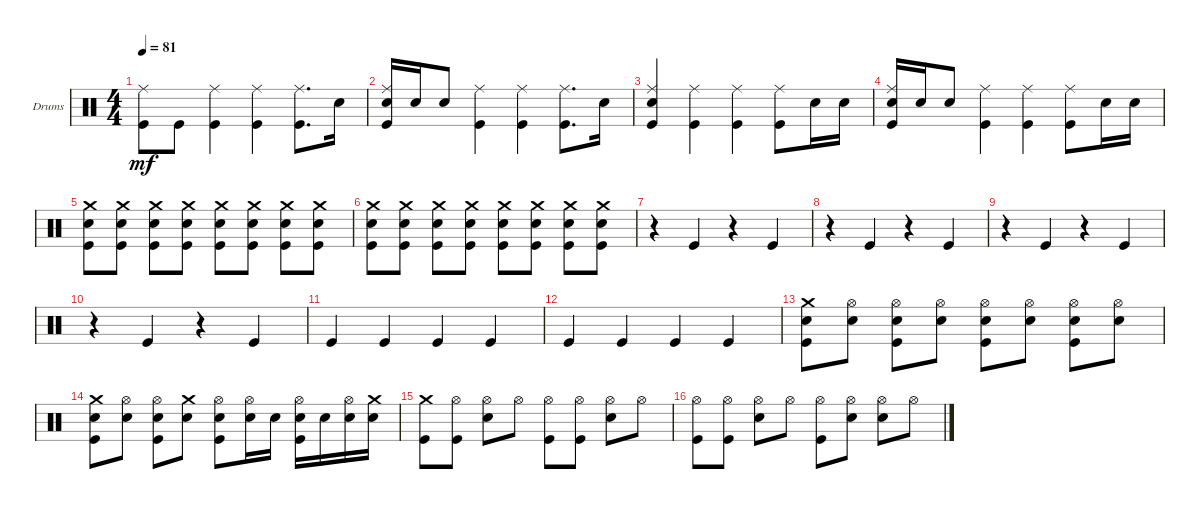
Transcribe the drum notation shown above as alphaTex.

\bracketExtendMode groupsimilarinstruments
\firstSystemTrackNameOrientation horizontal
\otherSystemsTrackNameOrientation horizontal
\track ("Drumkit" "Drums") {instrument percussion}
\staff {score}
\articulation defaults
\ts (4 4)
\tempo 81
\clef neutral
\ks c
("Kick (hit)" "Ride (middle)").8{dy mf} "Kick (hit)".8 ("Kick (hit)" "Ride (middle)").4 ("Kick (hit)" "Ride (middle)").4 ("Kick (hit)" "Ride (middle)").8{d} "Snare (hit) 2".16 |
("Kick (hit)" "Snare (hit) 2" "Ride (middle)").16 "Snare (hit) 2".16 "Snare (hit) 2".8 ("Kick (hit)" "Ride (middle)").4 ("Kick (hit)" "Ride (middle)").4 ("Kick (hit)" "Ride (middle)").8{d} "Snare (hit) 2".16 |
("Kick (hit)" "Snare (hit) 2" "Ride (middle)").4 ("Kick (hit)" "Ride (middle)").4 ("Kick (hit)" "Ride (middle)").4 ("Kick (hit)" "Ride (middle)").8 "Snare (hit) 2".16 "Snare (hit) 2".16 |
("Kick (hit)" "Snare (hit) 2" "Ride (middle)").16 "Snare (hit) 2".16 "Snare (hit) 2".8 ("Kick (hit)" "Ride (middle)").4 ("Kick (hit)" "Ride (middle)").4 ("Kick (hit)" "Ride (middle)").8 "Snare (hit) 2".16 "Snare (hit) 2".16 |
("Kick (hit)" "Snare (hit) 2" "Crash medium (hit)").8 ("Kick (hit)" "Snare (hit) 2" "Crash medium (hit)").8 ("Kick (hit)" "Snare (hit) 2" "Crash medium (hit)").8 ("Kick (hit)" "Snare (hit) 2" "Crash medium (hit)").8 ("Kick (hit)" "Snare (hit) 2" "Crash medium (hit)").8 ("Kick (hit)" "Snare (hit) 2" "Crash medium (hit)").8 ("Kick (hit)" "Snare (hit) 2" "Crash medium (hit)").8 ("Kick (hit)" "Snare (hit) 2" "Crash medium (hit)").8 |
("Kick (hit)" "Snare (hit) 2" "Crash medium (hit)").8 ("Kick (hit)" "Snare (hit) 2" "Crash medium (hit)").8 ("Kick (hit)" "Snare (hit) 2" "Crash medium (hit)").8 ("Kick (hit)" "Snare (hit) 2" "Crash medium (hit)").8 ("Kick (hit)" "Snare (hit) 2" "Crash medium (hit)").8 ("Kick (hit)" "Snare (hit) 2" "Crash medium (hit)").8 ("Kick (hit)" "Snare (hit) 2" "Crash medium (hit)").8 ("Kick (hit)" "Snare (hit) 2" "Crash medium (hit)").8 |
r.4 "Kick (hit)".4 r.4 "Kick (hit)".4 |
r.4 "Kick (hit)".4 r.4 "Kick (hit)".4 |
r.4 "Kick (hit)".4 r.4 "Kick (hit)".4 |
r.4 "Kick (hit)".4 r.4 "Kick (hit)".4 |
"Kick (hit)".4 "Kick (hit)".4 "Kick (hit)".4 "Kick (hit)".4 |
"Kick (hit)".4 "Kick (hit)".4 "Kick (hit)".4 "Kick (hit)".4 |
("Kick (hit)" "Snare (hit) 2" "Crash medium (hit)").8 ("Snare (hit) 2" "Hi-Hat (open)").8 ("Kick (hit)" "Snare (hit) 2" "Hi-Hat (open)").8 ("Snare (hit) 2" "Hi-Hat (open)").8 ("Kick (hit)" "Snare (hit) 2" "Hi-Hat (open)").8 ("Snare (hit) 2" "Hi-Hat (open)").8 ("Kick (hit)" "Snare (hit) 2" "Hi-Hat (open)").8 ("Snare (hit) 2" "Hi-Hat (open)").8 |
("Kick (hit)" "Snare (hit) 2" "Crash medium (hit)").8 ("Snare (hit) 2" "Hi-Hat (open)").8 ("Kick (hit)" "Snare (hit) 2" "Hi-Hat (open)").8 ("Snare (hit) 2" "Crash medium (hit)").8 ("Kick (hit)" "Snare (hit) 2" "Hi-Hat (open)").8 ("Snare (hit) 2" "Hi-Hat (open)").16 "Snare (hit) 2".16 ("Kick (hit)" "Snare (hit) 2" "Hi-Hat (open)").16 "Snare (hit) 2".16 ("Snare (hit) 2" "Hi-Hat (open)").16 ("Snare (hit) 2" "Crash medium (hit)").16 |
("Kick (hit)" "Crash medium (hit)").8 ("Kick (hit)" "Hi-Hat (open)").8 ("Snare (hit) 2" "Hi-Hat (open)").8 "Hi-Hat (open)".8 ("Kick (hit)" "Hi-Hat (open)").8 ("Kick (hit)" "Hi-Hat (open)").8 ("Snare (hit) 2" "Hi-Hat (open)").8 "Hi-Hat (open)".8 |
("Kick (hit)" "Hi-Hat (open)").8 ("Kick (hit)" "Hi-Hat (open)").8 ("Snare (hit) 2" "Hi-Hat (open)").8 "Hi-Hat (open)".8 ("Kick (hit)" "Hi-Hat (open)").8 ("Snare (hit) 2" "Hi-Hat (open)").8 ("Snare (hit) 2" "Hi-Hat (open)").8 "Hi-Hat (open)".8
